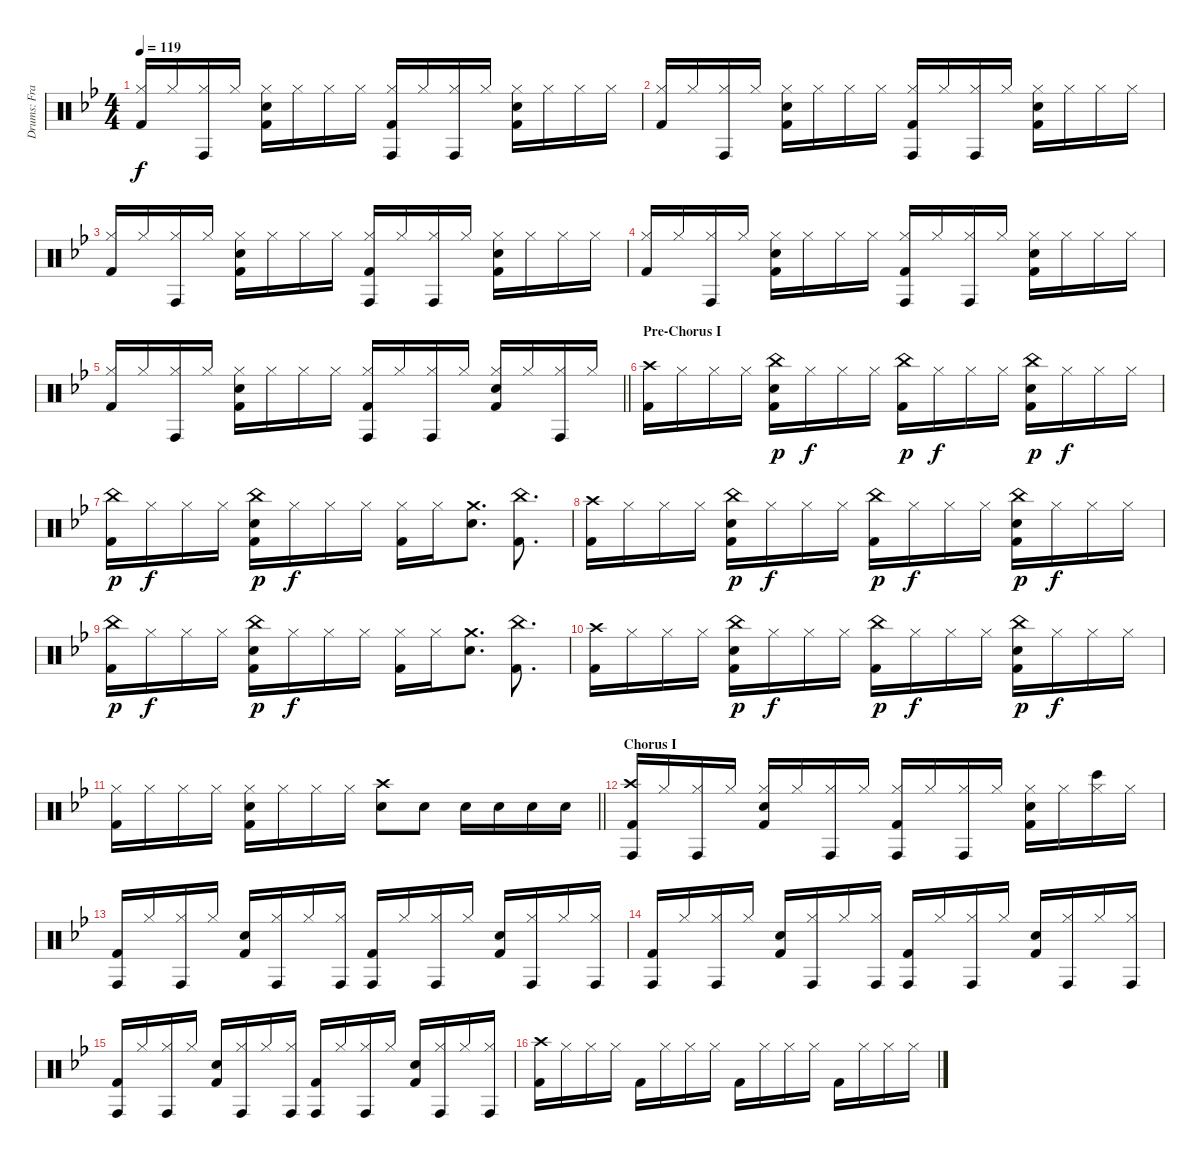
\track ("Drums: Frank" "Drums: Fra") {instrument percussion}
\staff {score}
\articulation defaults
\ts (4 4)
\tempo 119
\clef neutral
\ks bb
("Hi-Hat (closed)" "Kick (hit) 2").16{dy f} "Hi-Hat (closed)".16 ("Hi-Hat (closed)" "Conga high (hit)").16 "Hi-Hat (closed)".16 ("Hi-Hat (closed)" "Electric Snare (hit)" "Kick (hit) 2").16 "Hi-Hat (closed)".16 "Hi-Hat (closed)".16 "Hi-Hat (closed)".16 ("Hi-Hat (closed)" "Conga high (hit)" "Kick (hit) 2").16 "Hi-Hat (closed)".16 ("Hi-Hat (closed)" "Conga high (hit)").16 "Hi-Hat (closed)".16 ("Hi-Hat (closed)" "Electric Snare (hit)" "Kick (hit) 2").16 "Hi-Hat (closed)".16 "Hi-Hat (closed)".16 "Hi-Hat (closed)".16 |
("Hi-Hat (closed)" "Kick (hit) 2").16 "Hi-Hat (closed)".16 ("Hi-Hat (closed)" "Conga high (hit)").16 "Hi-Hat (closed)".16 ("Hi-Hat (closed)" "Electric Snare (hit)" "Kick (hit) 2").16 "Hi-Hat (closed)".16 "Hi-Hat (closed)".16 "Hi-Hat (closed)".16 ("Hi-Hat (closed)" "Conga high (hit)" "Kick (hit) 2").16 "Hi-Hat (closed)".16 ("Hi-Hat (closed)" "Conga high (hit)").16 "Hi-Hat (closed)".16 ("Hi-Hat (closed)" "Electric Snare (hit)" "Kick (hit) 2").16 "Hi-Hat (closed)".16 "Hi-Hat (closed)".16 "Hi-Hat (closed)".16 |
("Hi-Hat (closed)" "Kick (hit) 2").16 "Hi-Hat (closed)".16 ("Hi-Hat (closed)" "Conga high (hit)").16 "Hi-Hat (closed)".16 ("Hi-Hat (closed)" "Electric Snare (hit)" "Kick (hit) 2").16 "Hi-Hat (closed)".16 "Hi-Hat (closed)".16 "Hi-Hat (closed)".16 ("Hi-Hat (closed)" "Conga high (hit)" "Kick (hit) 2").16 "Hi-Hat (closed)".16 ("Hi-Hat (closed)" "Conga high (hit)").16 "Hi-Hat (closed)".16 ("Hi-Hat (closed)" "Electric Snare (hit)" "Kick (hit) 2").16 "Hi-Hat (closed)".16 "Hi-Hat (closed)".16 "Hi-Hat (closed)".16 |
("Hi-Hat (closed)" "Kick (hit) 2").16 "Hi-Hat (closed)".16 ("Hi-Hat (closed)" "Conga high (hit)").16 "Hi-Hat (closed)".16 ("Hi-Hat (closed)" "Electric Snare (hit)" "Kick (hit) 2").16 "Hi-Hat (closed)".16 "Hi-Hat (closed)".16 "Hi-Hat (closed)".16 ("Hi-Hat (closed)" "Conga high (hit)" "Kick (hit) 2").16 "Hi-Hat (closed)".16 ("Hi-Hat (closed)" "Conga high (hit)").16 "Hi-Hat (closed)".16 ("Hi-Hat (closed)" "Electric Snare (hit)" "Kick (hit) 2").16 "Hi-Hat (closed)".16 "Hi-Hat (closed)".16 "Hi-Hat (closed)".16 |
\barLineRight lightlight
("Hi-Hat (closed)" "Kick (hit) 2").16 "Hi-Hat (closed)".16 ("Hi-Hat (closed)" "Conga high (hit)").16 "Hi-Hat (closed)".16 ("Hi-Hat (closed)" "Electric Snare (hit)" "Kick (hit) 2").16 "Hi-Hat (closed)".16 "Hi-Hat (closed)".16 "Hi-Hat (closed)".16 ("Hi-Hat (closed)" "Conga high (hit)" "Kick (hit) 2").16 "Hi-Hat (closed)".16 ("Hi-Hat (closed)" "Conga high (hit)").16 "Hi-Hat (closed)".16 ("Hi-Hat (closed)" "Electric Snare (hit)" "Kick (hit) 2").16 "Hi-Hat (closed)".16 ("Hi-Hat (closed)" "Conga high (hit)").16 "Hi-Hat (closed)".16 |
\section ("" "Pre-Chorus I")
("Crash high (hit)" "Kick (hit) 2").16 "Hi-Hat (closed)".16 "Hi-Hat (closed)".16 "Hi-Hat (closed)".16 ("China (hit)" "Electric Snare (hit)" "Kick (hit) 2").16{dy p} "Hi-Hat (closed)".16{dy f} "Hi-Hat (closed)".16 "Hi-Hat (closed)".16 ("China (hit)" "Kick (hit) 2").16{dy p} "Hi-Hat (closed)".16{dy f} "Hi-Hat (closed)".16 "Hi-Hat (closed)".16 ("China (hit)" "Electric Snare (hit)" "Kick (hit) 2").16{dy p} "Hi-Hat (closed)".16{dy f} "Hi-Hat (closed)".16 "Hi-Hat (closed)".16 |
("China (hit)" "Kick (hit) 2").16{dy p} "Hi-Hat (closed)".16{dy f} "Hi-Hat (closed)".16 "Hi-Hat (closed)".16 ("China (hit)" "Electric Snare (hit)" "Kick (hit) 2").16{dy p} "Hi-Hat (closed)".16{dy f} "Hi-Hat (closed)".16 "Hi-Hat (closed)".16 ("Hi-Hat (closed)" "Kick (hit) 2").16 "Hi-Hat (closed)".16 ("Crash medium (hit)" "Electric Snare (hit)").8{d} ("China (hit)" "Kick (hit) 2").8{d} |
("Crash high (hit)" "Kick (hit) 2").16 "Hi-Hat (closed)".16 "Hi-Hat (closed)".16 "Hi-Hat (closed)".16 ("China (hit)" "Electric Snare (hit)" "Kick (hit) 2").16{dy p} "Hi-Hat (closed)".16{dy f} "Hi-Hat (closed)".16 "Hi-Hat (closed)".16 ("China (hit)" "Kick (hit) 2").16{dy p} "Hi-Hat (closed)".16{dy f} "Hi-Hat (closed)".16 "Hi-Hat (closed)".16 ("China (hit)" "Electric Snare (hit)" "Kick (hit) 2").16{dy p} "Hi-Hat (closed)".16{dy f} "Hi-Hat (closed)".16 "Hi-Hat (closed)".16 |
("China (hit)" "Kick (hit) 2").16{dy p} "Hi-Hat (closed)".16{dy f} "Hi-Hat (closed)".16 "Hi-Hat (closed)".16 ("China (hit)" "Electric Snare (hit)" "Kick (hit) 2").16{dy p} "Hi-Hat (closed)".16{dy f} "Hi-Hat (closed)".16 "Hi-Hat (closed)".16 ("Hi-Hat (closed)" "Kick (hit) 2").16 "Hi-Hat (closed)".16 ("Crash medium (hit)" "Electric Snare (hit)").8{d} ("China (hit)" "Kick (hit) 2").8{d} |
("Crash high (hit)" "Kick (hit) 2").16 "Hi-Hat (closed)".16 "Hi-Hat (closed)".16 "Hi-Hat (closed)".16 ("China (hit)" "Electric Snare (hit)" "Kick (hit) 2").16{dy p} "Hi-Hat (closed)".16{dy f} "Hi-Hat (closed)".16 "Hi-Hat (closed)".16 ("China (hit)" "Kick (hit) 2").16{dy p} "Hi-Hat (closed)".16{dy f} "Hi-Hat (closed)".16 "Hi-Hat (closed)".16 ("China (hit)" "Electric Snare (hit)" "Kick (hit) 2").16{dy p} "Hi-Hat (closed)".16{dy f} "Hi-Hat (closed)".16 "Hi-Hat (closed)".16 |
\barLineRight lightlight
("Hi-Hat (closed)" "Kick (hit) 2").16 "Hi-Hat (closed)".16 "Hi-Hat (closed)".16 "Hi-Hat (closed)".16 ("Hi-Hat (closed)" "Electric Snare (hit)" "Kick (hit) 2").16 "Hi-Hat (closed)".16 "Hi-Hat (closed)".16 "Hi-Hat (closed)".16 ("Crash high (hit)" "Electric Snare (hit)").8 "Electric Snare (hit)".8 "Electric Snare (hit)".16 "Electric Snare (hit)".16 "Electric Snare (hit)".16 "Electric Snare (hit)".16 |
\section ("" "Chorus I")
("Crash high (hit)" "Conga high (hit)" "Kick (hit) 2").16 "Hi-Hat (closed)".16 ("Hi-Hat (closed)" "Conga high (hit)").16 "Hi-Hat (closed)".16 ("Hi-Hat (closed)" "Snare (hit) 2" "Kick (hit) 2").16 "Hi-Hat (closed)".16 ("Hi-Hat (closed)" "Conga high (hit)").16 "Hi-Hat (closed)".16 ("Hi-Hat (closed)" "Conga high (hit)" "Kick (hit) 2").16 "Hi-Hat (closed)".16 ("Hi-Hat (closed)" "Conga high (hit)").16 "Hi-Hat (closed)".16 ("Hi-Hat (closed)" "Snare (hit) 2" "Kick (hit) 2").16 "Hi-Hat (closed)".16 ("Hi-Hat (closed)" "Bongo High (hit)").16 "Hi-Hat (closed)".16 |
("Conga high (hit)" "Kick (hit) 2").16 "Hi-Hat (closed)".16 ("Hi-Hat (closed)" "Conga high (hit)").16 "Hi-Hat (closed)".16 ("Electric Snare (hit)" "Kick (hit) 2").16 ("Hi-Hat (closed)" "Conga high (hit)").16 "Hi-Hat (closed)".16 ("Hi-Hat (closed)" "Conga high (hit)").16 ("Conga high (hit)" "Kick (hit) 2").16 "Hi-Hat (closed)".16 ("Hi-Hat (closed)" "Conga high (hit)").16 "Hi-Hat (closed)".16 ("Electric Snare (hit)" "Kick (hit) 2").16 ("Hi-Hat (closed)" "Conga high (hit)").16 "Hi-Hat (closed)".16 ("Hi-Hat (closed)" "Conga high (hit)").16 |
("Conga high (hit)" "Kick (hit) 2").16 "Hi-Hat (closed)".16 ("Hi-Hat (closed)" "Conga high (hit)").16 "Hi-Hat (closed)".16 ("Electric Snare (hit)" "Kick (hit) 2").16 ("Hi-Hat (closed)" "Conga high (hit)").16 "Hi-Hat (closed)".16 ("Hi-Hat (closed)" "Conga high (hit)").16 ("Conga high (hit)" "Kick (hit) 2").16 "Hi-Hat (closed)".16 ("Hi-Hat (closed)" "Conga high (hit)").16 "Hi-Hat (closed)".16 ("Electric Snare (hit)" "Kick (hit) 2").16 ("Hi-Hat (closed)" "Conga high (hit)").16 "Hi-Hat (closed)".16 ("Hi-Hat (closed)" "Conga high (hit)").16 |
("Conga high (hit)" "Kick (hit) 2").16 "Hi-Hat (closed)".16 ("Hi-Hat (closed)" "Conga high (hit)").16 "Hi-Hat (closed)".16 ("Electric Snare (hit)" "Kick (hit) 2").16 ("Hi-Hat (closed)" "Conga high (hit)").16 "Hi-Hat (closed)".16 ("Hi-Hat (closed)" "Conga high (hit)").16 ("Conga high (hit)" "Kick (hit) 2").16 "Hi-Hat (closed)".16 ("Hi-Hat (closed)" "Conga high (hit)").16 "Hi-Hat (closed)".16 ("Electric Snare (hit)" "Kick (hit) 2").16 ("Hi-Hat (closed)" "Conga high (hit)").16 "Hi-Hat (closed)".16 ("Hi-Hat (closed)" "Conga high (hit)").16 |
("Crash high (hit)" "Kick (hit) 2").16 "Hi-Hat (closed)".16 "Hi-Hat (closed)".16 "Hi-Hat (closed)".16 "Kick (hit) 2".16 "Hi-Hat (closed)".16 "Hi-Hat (closed)".16 "Hi-Hat (closed)".16 "Kick (hit) 2".16 "Hi-Hat (closed)".16 "Hi-Hat (closed)".16 "Hi-Hat (closed)".16 "Kick (hit) 2".16 "Hi-Hat (closed)".16 "Hi-Hat (closed)".16 "Hi-Hat (closed)".16
